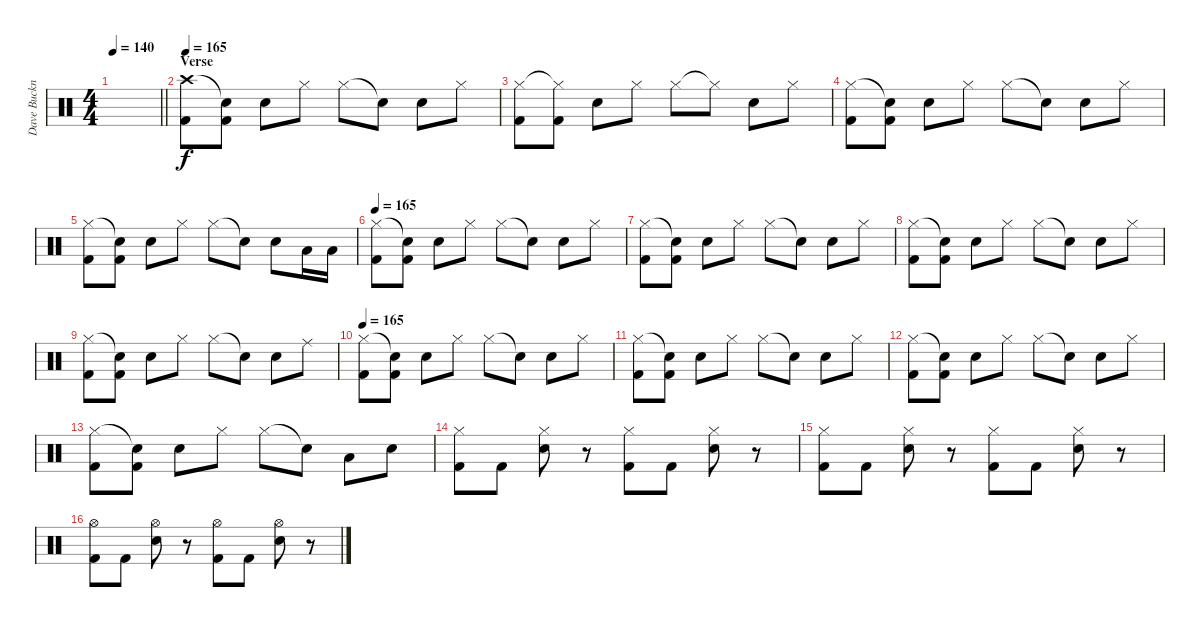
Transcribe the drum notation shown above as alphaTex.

\track ("Dave Buckner " "Dave Buckn") {instrument percussion}
\staff {score}
\articulation defaults
\ts (4 4)
\tempo 140
\clef neutral
\barLineRight lightlight
\ks c
|
\section ("" "Verse")
\tempo 165
("Crash high (hit)" "Kick (hit) 2").8 ("Snare (hit)"{t} "Kick (hit) 2").8 "Snare (hit) 2".8 "Hi-Hat (closed)".8 "Hi-Hat (closed)".8 "Snare (hit)"{t}.8 "Snare (hit) 2".8 "Hi-Hat (closed)".8 |
("Hi-Hat (closed)" "Kick (hit) 2").8 ("Hi-Hat (closed)"{t} "Kick (hit) 2").8 "Snare (hit) 2".8 "Hi-Hat (closed)".8 "Hi-Hat (closed)".8 "Hi-Hat (closed)"{t}.8 "Snare (hit) 2".8 "Hi-Hat (closed)".8 |
("Hi-Hat (closed)" "Kick (hit) 2").8 ("Snare (hit)"{t} "Kick (hit) 2").8 "Snare (hit) 2".8 "Hi-Hat (closed)".8 "Hi-Hat (closed)".8 "Snare (hit)"{t}.8 "Snare (hit) 2".8 "Hi-Hat (closed)".8 |
("Hi-Hat (closed)" "Kick (hit) 2").8 ("Snare (hit)"{t} "Kick (hit) 2").8 "Snare (hit) 2".8 "Hi-Hat (closed)".8 "Hi-Hat (closed)".8 "Snare (hit)"{t}.8 "Snare (hit) 2".8 "Low Tom (hit)".16 "Low Tom (hit)".16 |
\tempo 165
("Hi-Hat (closed)" "Kick (hit) 2").8 ("Snare (hit)"{t} "Kick (hit) 2").8 "Snare (hit) 2".8 "Hi-Hat (closed)".8 "Hi-Hat (closed)".8 "Snare (hit)"{t}.8 "Snare (hit) 2".8 "Hi-Hat (closed)".8 |
("Hi-Hat (closed)" "Kick (hit) 2").8 ("Snare (hit)"{t} "Kick (hit) 2").8 "Snare (hit) 2".8 "Hi-Hat (closed)".8 "Hi-Hat (closed)".8 "Snare (hit)"{t}.8 "Snare (hit) 2".8 "Hi-Hat (closed)".8 |
("Hi-Hat (closed)" "Kick (hit) 2").8 ("Snare (hit)"{t} "Kick (hit) 2").8 "Snare (hit) 2".8 "Hi-Hat (closed)".8 "Hi-Hat (closed)".8 "Snare (hit)"{t}.8 "Snare (hit) 2".8 "Hi-Hat (closed)".8 |
("Hi-Hat (closed)" "Kick (hit) 2").8 ("Snare (hit)"{t} "Kick (hit) 2").8 "Snare (hit) 2".8 "Hi-Hat (closed)".8 "Hi-Hat (closed)".8 "Snare (hit)"{t}.8 "Snare (hit) 2".8 "Ride (middle)".8 |
\tempo 165
("Hi-Hat (closed)" "Kick (hit) 2").8 ("Snare (hit)"{t} "Kick (hit) 2").8 "Snare (hit) 2".8 "Hi-Hat (closed)".8 "Hi-Hat (closed)".8 "Snare (hit)"{t}.8 "Snare (hit) 2".8 "Hi-Hat (closed)".8 |
("Hi-Hat (closed)" "Kick (hit) 2").8 ("Snare (hit)"{t} "Kick (hit) 2").8 "Snare (hit) 2".8 "Hi-Hat (closed)".8 "Hi-Hat (closed)".8 "Snare (hit)"{t}.8 "Snare (hit) 2".8 "Hi-Hat (closed)".8 |
("Hi-Hat (closed)" "Kick (hit) 2").8 ("Snare (hit)"{t} "Kick (hit) 2").8 "Snare (hit) 2".8 "Hi-Hat (closed)".8 "Hi-Hat (closed)".8 "Snare (hit)"{t}.8 "Snare (hit) 2".8 "Hi-Hat (closed)".8 |
("Hi-Hat (closed)" "Kick (hit) 2").8 ("Snare (hit)"{t} "Kick (hit) 2").8 "Snare (hit) 2".8 "Hi-Hat (closed)".8 "Hi-Hat (closed)".8 "Snare (hit)"{t}.8 "Low Tom (hit)".8 "Snare (hit) 2".8 |
("Hi-Hat (closed)" "Kick (hit) 2").8 "Kick (hit) 2".8 ("Hi-Hat (closed)" "Snare (hit) 2").8 r.8 ("Hi-Hat (closed)" "Kick (hit) 2").8 "Kick (hit) 2".8 ("Hi-Hat (closed)" "Snare (hit) 2").8 r.8 |
("Hi-Hat (closed)" "Kick (hit) 2").8 "Kick (hit) 2".8 ("Hi-Hat (closed)" "Snare (hit) 2").8 r.8 ("Hi-Hat (closed)" "Kick (hit) 2").8 "Kick (hit) 2".8 ("Hi-Hat (closed)" "Snare (hit) 2").8 r.8 |
("Hi-Hat (open)" "Kick (hit) 2").8 "Kick (hit) 2".8 ("Hi-Hat (open)" "Snare (hit) 2").8 r.8 ("Hi-Hat (open)" "Kick (hit) 2").8 "Kick (hit) 2".8 ("Hi-Hat (open)" "Snare (hit) 2").8 r.8
